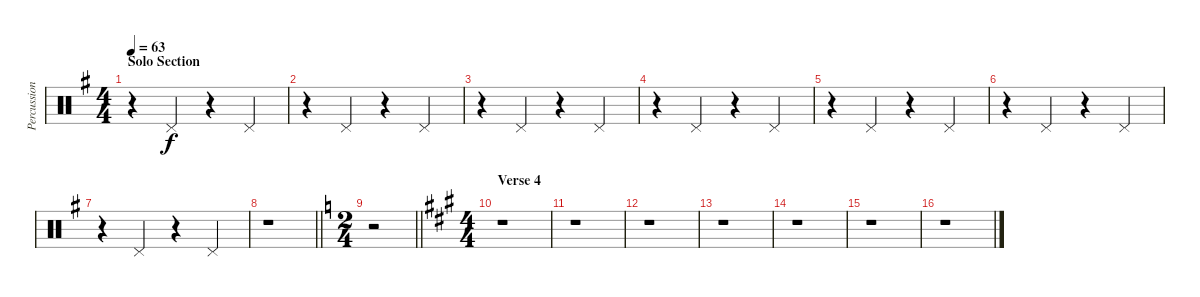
\track ("Percussion" "Percussion") {instrument percussion}
\staff {score}
\articulation defaults
\ts (4 4)
\section ("" "Solo Section")
\tempo 63
\clef neutral
\ks g
r.4{dy f} "Pedal Hi-Hat (hit)".4 r.4 "Pedal Hi-Hat (hit)".4 |
r.4 "Pedal Hi-Hat (hit)".4 r.4 "Pedal Hi-Hat (hit)".4 |
r.4 "Pedal Hi-Hat (hit)".4 r.4 "Pedal Hi-Hat (hit)".4 |
r.4 "Pedal Hi-Hat (hit)".4 r.4 "Pedal Hi-Hat (hit)".4 |
r.4 "Pedal Hi-Hat (hit)".4 r.4 "Pedal Hi-Hat (hit)".4 |
r.4 "Pedal Hi-Hat (hit)".4 r.4 "Pedal Hi-Hat (hit)".4 |
r.4 "Pedal Hi-Hat (hit)".4 r.4 "Pedal Hi-Hat (hit)".4 |
\barLineRight lightlight
r.1 |
\ts (2 4)
\barLineRight lightlight
\ks c
r.2 |
\ts (4 4)
\section ("" "Verse 4")
\ks a
r.1 |
r.1 |
r.1 |
r.1 |
r.1 |
r.1 |
r.1
